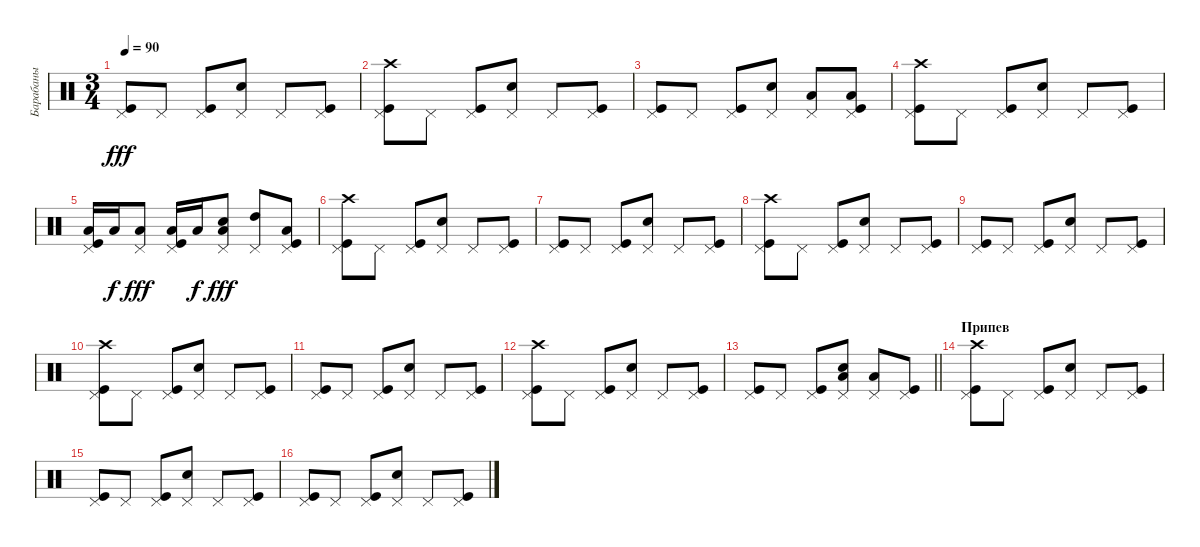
\track ("Барабаны" "Барабаны") {instrument percussion}
\staff {score}
\articulation defaults
\ts (3 4)
\tempo 90
\clef neutral
\ks c
("Kick (hit)" "Pedal Hi-Hat (hit)").8{dy fff} "Pedal Hi-Hat (hit)".8 ("Kick (hit)" "Pedal Hi-Hat (hit)").8 ("Snare (hit) 2" "Pedal Hi-Hat (hit)").8 "Pedal Hi-Hat (hit)".8 ("Kick (hit)" "Pedal Hi-Hat (hit)").8 |
("Kick (hit)" "Pedal Hi-Hat (hit)" "Crash high (hit)").8 "Pedal Hi-Hat (hit)".8 ("Kick (hit)" "Pedal Hi-Hat (hit)").8 ("Snare (hit) 2" "Pedal Hi-Hat (hit)").8 "Pedal Hi-Hat (hit)".8 ("Kick (hit)" "Pedal Hi-Hat (hit)").8 |
("Kick (hit)" "Pedal Hi-Hat (hit)").8 "Pedal Hi-Hat (hit)".8 ("Kick (hit)" "Pedal Hi-Hat (hit)").8 ("Snare (hit) 2" "Pedal Hi-Hat (hit)").8 ("Pedal Hi-Hat (hit)" "Low Tom (hit)").8 ("Kick (hit)" "Pedal Hi-Hat (hit)" "Low Tom (hit)").8 |
("Kick (hit)" "Pedal Hi-Hat (hit)" "Crash high (hit)").8 "Pedal Hi-Hat (hit)".8 ("Kick (hit)" "Pedal Hi-Hat (hit)").8 ("Snare (hit) 2" "Pedal Hi-Hat (hit)").8 "Pedal Hi-Hat (hit)".8 ("Kick (hit)" "Pedal Hi-Hat (hit)").8 |
("Kick (hit)" "Pedal Hi-Hat (hit)" "Low Floor Tom (hit)").16 "Low Floor Tom (hit)".16{dy f} ("Pedal Hi-Hat (hit)" "Low Floor Tom (hit)").8{dy fff} ("Kick (hit)" "Pedal Hi-Hat (hit)" "Low Tom (hit)").16 "Low Tom (hit)".16{dy f} ("Snare (hit) 2" "Pedal Hi-Hat (hit)" "Low Tom (hit)").8{dy fff} ("Pedal Hi-Hat (hit)" "High Tom (hit)").8 ("Kick (hit)" "Pedal Hi-Hat (hit)" "Low Tom (hit)").8 |
("Kick (hit)" "Pedal Hi-Hat (hit)" "Crash high (hit)").8 "Pedal Hi-Hat (hit)".8 ("Kick (hit)" "Pedal Hi-Hat (hit)").8 ("Snare (hit) 2" "Pedal Hi-Hat (hit)").8 "Pedal Hi-Hat (hit)".8 ("Kick (hit)" "Pedal Hi-Hat (hit)").8 |
("Kick (hit)" "Pedal Hi-Hat (hit)").8 "Pedal Hi-Hat (hit)".8 ("Kick (hit)" "Pedal Hi-Hat (hit)").8 ("Snare (hit) 2" "Pedal Hi-Hat (hit)").8 "Pedal Hi-Hat (hit)".8 ("Kick (hit)" "Pedal Hi-Hat (hit)").8 |
("Kick (hit)" "Pedal Hi-Hat (hit)" "Crash high (hit)").8 "Pedal Hi-Hat (hit)".8 ("Kick (hit)" "Pedal Hi-Hat (hit)").8 ("Snare (hit) 2" "Pedal Hi-Hat (hit)").8 "Pedal Hi-Hat (hit)".8 ("Kick (hit)" "Pedal Hi-Hat (hit)").8 |
("Kick (hit)" "Pedal Hi-Hat (hit)").8 "Pedal Hi-Hat (hit)".8 ("Kick (hit)" "Pedal Hi-Hat (hit)").8 ("Snare (hit) 2" "Pedal Hi-Hat (hit)").8 "Pedal Hi-Hat (hit)".8 ("Kick (hit)" "Pedal Hi-Hat (hit)").8 |
("Kick (hit)" "Pedal Hi-Hat (hit)" "Crash high (hit)").8 "Pedal Hi-Hat (hit)".8 ("Kick (hit)" "Pedal Hi-Hat (hit)").8 ("Snare (hit) 2" "Pedal Hi-Hat (hit)").8 "Pedal Hi-Hat (hit)".8 ("Kick (hit)" "Pedal Hi-Hat (hit)").8 |
("Kick (hit)" "Pedal Hi-Hat (hit)").8 "Pedal Hi-Hat (hit)".8 ("Kick (hit)" "Pedal Hi-Hat (hit)").8 ("Snare (hit) 2" "Pedal Hi-Hat (hit)").8 "Pedal Hi-Hat (hit)".8 ("Kick (hit)" "Pedal Hi-Hat (hit)").8 |
("Kick (hit)" "Pedal Hi-Hat (hit)" "Crash high (hit)").8 "Pedal Hi-Hat (hit)".8 ("Kick (hit)" "Pedal Hi-Hat (hit)").8 ("Snare (hit) 2" "Pedal Hi-Hat (hit)").8 "Pedal Hi-Hat (hit)".8 ("Kick (hit)" "Pedal Hi-Hat (hit)").8 |
\barLineRight lightlight
("Kick (hit)" "Pedal Hi-Hat (hit)").8 "Pedal Hi-Hat (hit)".8 ("Kick (hit)" "Pedal Hi-Hat (hit)").8 ("Snare (hit) 2" "Pedal Hi-Hat (hit)" "Low Floor Tom (hit)").8 ("Pedal Hi-Hat (hit)" "Low Floor Tom (hit)").8 ("Kick (hit)" "Pedal Hi-Hat (hit)").8 |
\section ("" "Припев")
("Kick (hit)" "Pedal Hi-Hat (hit)" "Crash high (hit)").8 "Pedal Hi-Hat (hit)".8 ("Kick (hit)" "Pedal Hi-Hat (hit)").8 ("Snare (hit) 2" "Pedal Hi-Hat (hit)").8 "Pedal Hi-Hat (hit)".8 ("Kick (hit)" "Pedal Hi-Hat (hit)").8 |
("Kick (hit)" "Pedal Hi-Hat (hit)").8 "Pedal Hi-Hat (hit)".8 ("Kick (hit)" "Pedal Hi-Hat (hit)").8 ("Snare (hit) 2" "Pedal Hi-Hat (hit)").8 "Pedal Hi-Hat (hit)".8 ("Kick (hit)" "Pedal Hi-Hat (hit)").8 |
("Kick (hit)" "Pedal Hi-Hat (hit)").8 "Pedal Hi-Hat (hit)".8 ("Kick (hit)" "Pedal Hi-Hat (hit)").8 ("Snare (hit) 2" "Pedal Hi-Hat (hit)").8 "Pedal Hi-Hat (hit)".8 ("Kick (hit)" "Pedal Hi-Hat (hit)").8
